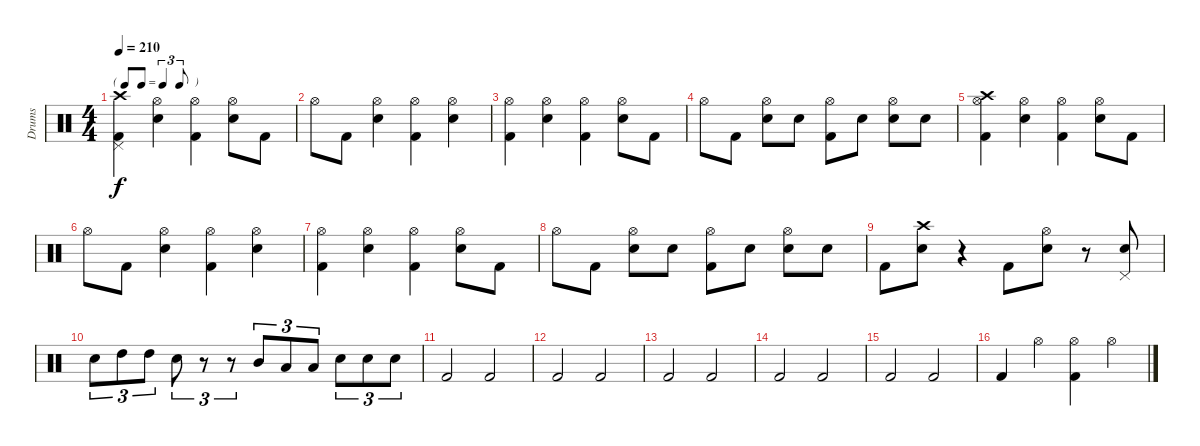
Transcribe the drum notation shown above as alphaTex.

\track ("Drums" "Drums") {instrument percussion}
\staff {score}
\articulation defaults
\ts (4 4)
\tf triplet8th
\tempo 210
\clef neutral
\ks c
("Crash high (hit)" "Pedal Hi-Hat (hit)" "Kick (hit) 2").4{dy f} ("Hi-Hat (open)" "Snare (hit) 2").4 ("Hi-Hat (open)" "Kick (hit) 2").4 ("Hi-Hat (open)" "Snare (hit) 2").8 "Kick (hit) 2".8 |
"Hi-Hat (open)".8 "Kick (hit) 2".8 ("Hi-Hat (open)" "Snare (hit) 2").4 ("Hi-Hat (open)" "Kick (hit) 2").4 ("Hi-Hat (open)" "Snare (hit) 2").4 |
("Hi-Hat (open)" "Kick (hit) 2").4 ("Hi-Hat (open)" "Snare (hit) 2").4 ("Hi-Hat (open)" "Kick (hit) 2").4 ("Hi-Hat (open)" "Snare (hit) 2").8 "Kick (hit) 2".8 |
"Hi-Hat (open)".8 "Kick (hit) 2".8 ("Hi-Hat (open)" "Snare (hit) 2").8 "Snare (hit) 2".8 ("Hi-Hat (open)" "Kick (hit) 2").8 "Snare (hit) 2".8 ("Hi-Hat (open)" "Snare (hit) 2").8 "Snare (hit) 2".8 |
("Crash high (hit)" "Hi-Hat (open)" "Kick (hit) 2").4 ("Hi-Hat (open)" "Snare (hit) 2").4 ("Hi-Hat (open)" "Kick (hit) 2").4 ("Hi-Hat (open)" "Snare (hit) 2").8 "Kick (hit) 2".8 |
"Hi-Hat (open)".8 "Kick (hit) 2".8 ("Hi-Hat (open)" "Snare (hit) 2").4 ("Hi-Hat (open)" "Kick (hit) 2").4 ("Hi-Hat (open)" "Snare (hit) 2").4 |
("Hi-Hat (open)" "Kick (hit) 2").4 ("Hi-Hat (open)" "Snare (hit) 2").4 ("Hi-Hat (open)" "Kick (hit) 2").4 ("Hi-Hat (open)" "Snare (hit) 2").8 "Kick (hit) 2".8 |
"Hi-Hat (open)".8 "Kick (hit) 2".8 ("Hi-Hat (open)" "Snare (hit) 2").8 "Snare (hit) 2".8 ("Hi-Hat (open)" "Kick (hit) 2").8 "Snare (hit) 2".8 ("Hi-Hat (open)" "Snare (hit) 2").8 "Snare (hit) 2".8 |
"Kick (hit) 2".8 ("Crash high (hit)" "Snare (hit) 2").8 r.4 "Kick (hit) 2".8 ("Hi-Hat (open)" "Snare (hit) 2").8 r.8 ("Pedal Hi-Hat (hit)" "Snare (hit) 2").8 |
"Snare (hit) 2".8{tu (3 2)} "High Tom (hit)".8{tu (3 2)} "High Tom (hit)".8{tu (3 2)} "Snare (hit) 2".8{tu (3 2)} r.8{tu (3 2)} r.8{tu (3 2)} "Mid Tom (hit)".8{tu (3 2)} "Low Tom (hit)".8{tu (3 2)} "Low Tom (hit)".8{tu (3 2)} "Snare (hit) 2".8{tu (3 2)} "Snare (hit) 2".8{tu (3 2)} "Snare (hit) 2".8{tu (3 2)} |
"Kick (hit) 2".2 "Kick (hit) 2".2 |
"Kick (hit) 2".2 "Kick (hit) 2".2 |
"Kick (hit) 2".2 "Kick (hit) 2".2 |
"Kick (hit) 2".2 "Kick (hit) 2".2 |
"Kick (hit) 2".2 "Kick (hit) 2".2 |
"Kick (hit) 2".4 "Hi-Hat (open)".4 ("Hi-Hat (open)" "Kick (hit) 2").4 "Hi-Hat (open)".4
